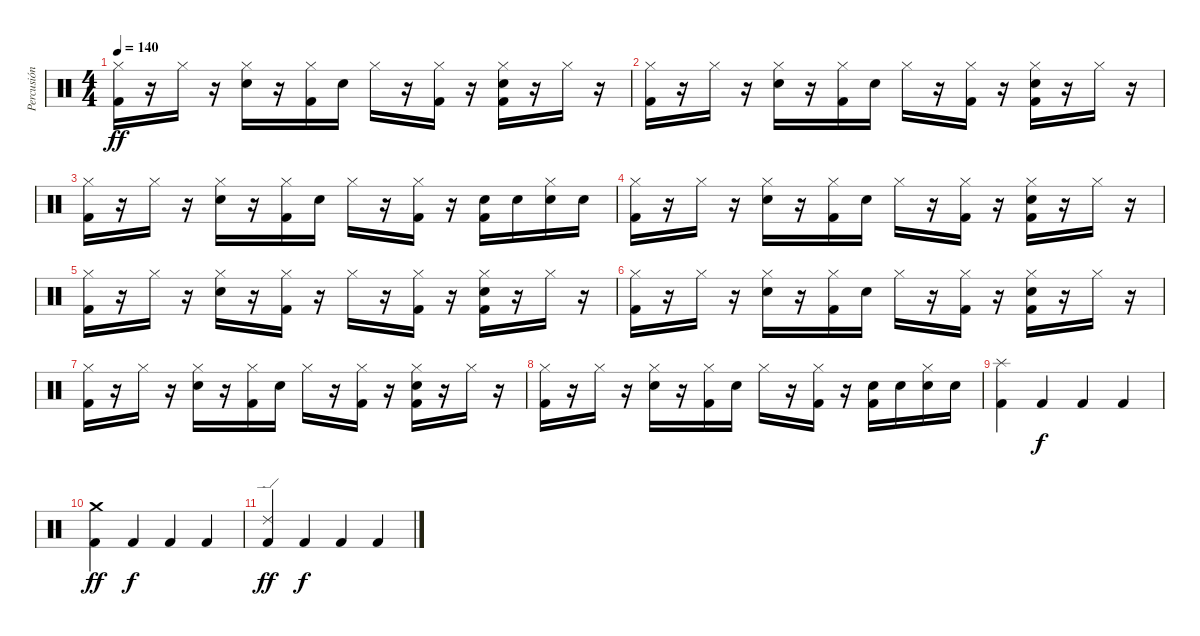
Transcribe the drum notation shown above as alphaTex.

\track ("Percusión" "Percusión") {instrument percussion}
\staff {score}
\articulation defaults
\ts (4 4)
\tempo 140
\clef neutral
\ks c
("Hi-Hat (closed)" "Kick (hit) 2").16{dy ff} r.16 "Hi-Hat (closed)".16 r.16 ("Hi-Hat (closed)" "Snare (hit) 2").16 r.16 ("Hi-Hat (closed)" "Kick (hit) 2").16 "Snare (hit) 2".16 "Hi-Hat (closed)".16 r.16 ("Hi-Hat (closed)" "Kick (hit) 2").16 r.16 ("Hi-Hat (closed)" "Snare (hit) 2" "Kick (hit) 2").16 r.16 "Hi-Hat (closed)".16 r.16 |
("Hi-Hat (closed)" "Kick (hit) 2").16 r.16 "Hi-Hat (closed)".16 r.16 ("Hi-Hat (closed)" "Snare (hit) 2").16 r.16 ("Hi-Hat (closed)" "Kick (hit) 2").16 "Snare (hit) 2".16 "Hi-Hat (closed)".16 r.16 ("Hi-Hat (closed)" "Kick (hit) 2").16 r.16 ("Hi-Hat (closed)" "Snare (hit) 2" "Kick (hit) 2").16 r.16 "Hi-Hat (closed)".16 r.16 |
("Hi-Hat (closed)" "Kick (hit) 2").16 r.16 "Hi-Hat (closed)".16 r.16 ("Hi-Hat (closed)" "Snare (hit) 2").16 r.16 ("Hi-Hat (closed)" "Kick (hit) 2").16 "Snare (hit) 2".16 "Hi-Hat (closed)".16 r.16 ("Hi-Hat (closed)" "Kick (hit) 2").16 r.16 ("Snare (hit) 2" "Kick (hit) 2").16 "Snare (hit) 2".16 ("Hi-Hat (closed)" "Snare (hit) 2").16 "Snare (hit) 2".16 |
("Hi-Hat (closed)" "Kick (hit) 2").16 r.16 "Hi-Hat (closed)".16 r.16 ("Hi-Hat (closed)" "Snare (hit) 2").16 r.16 ("Hi-Hat (closed)" "Kick (hit) 2").16 "Snare (hit) 2".16 "Hi-Hat (closed)".16 r.16 ("Hi-Hat (closed)" "Kick (hit) 2").16 r.16 ("Hi-Hat (closed)" "Snare (hit) 2" "Kick (hit) 2").16 r.16 "Hi-Hat (closed)".16 r.16 |
("Hi-Hat (closed)" "Kick (hit) 2").16 r.16 "Hi-Hat (closed)".16 r.16 ("Hi-Hat (closed)" "Snare (hit) 2").16 r.16 ("Hi-Hat (closed)" "Kick (hit) 2").16 r.16 "Hi-Hat (closed)".16 r.16 ("Hi-Hat (closed)" "Kick (hit) 2").16 r.16 ("Hi-Hat (closed)" "Snare (hit) 2" "Kick (hit) 2").16 r.16 "Hi-Hat (closed)".16 r.16 |
("Hi-Hat (closed)" "Kick (hit) 2").16 r.16 "Hi-Hat (closed)".16 r.16 ("Hi-Hat (closed)" "Snare (hit) 2").16 r.16 ("Hi-Hat (closed)" "Kick (hit) 2").16 "Snare (hit) 2".16 "Hi-Hat (closed)".16 r.16 ("Hi-Hat (closed)" "Kick (hit) 2").16 r.16 ("Hi-Hat (closed)" "Snare (hit) 2" "Kick (hit) 2").16 r.16 "Hi-Hat (closed)".16 r.16 |
("Hi-Hat (closed)" "Kick (hit) 2").16 r.16 "Hi-Hat (closed)".16 r.16 ("Hi-Hat (closed)" "Snare (hit) 2").16 r.16 ("Hi-Hat (closed)" "Kick (hit) 2").16 "Snare (hit) 2".16 "Hi-Hat (closed)".16 r.16 ("Hi-Hat (closed)" "Kick (hit) 2").16 r.16 ("Hi-Hat (closed)" "Snare (hit) 2" "Kick (hit) 2").16 r.16 "Hi-Hat (closed)".16 r.16 |
("Hi-Hat (closed)" "Kick (hit) 2").16 r.16 "Hi-Hat (closed)".16 r.16 ("Hi-Hat (closed)" "Snare (hit) 2").16 r.16 ("Hi-Hat (closed)" "Kick (hit) 2").16 "Snare (hit) 2".16 "Hi-Hat (closed)".16 r.16 ("Hi-Hat (closed)" "Kick (hit) 2").16 r.16 ("Snare (hit) 2" "Kick (hit) 2").16 "Snare (hit) 2".16 ("Hi-Hat (closed)" "Snare (hit) 2").16 "Snare (hit) 2".16 |
("Splash (hit)" "Kick (hit) 2").4 "Kick (hit) 2".4{dy f} "Kick (hit) 2".4 "Kick (hit) 2".4 |
("Crash medium (hit)" "Kick (hit) 2").4{dy ff} "Kick (hit) 2".4{dy f} "Kick (hit) 2".4 "Kick (hit) 2".4 |
("Ride (edge) 2" "Kick (hit) 2").4{dy ff} "Kick (hit) 2".4{dy f} "Kick (hit) 2".4 "Kick (hit) 2".4
